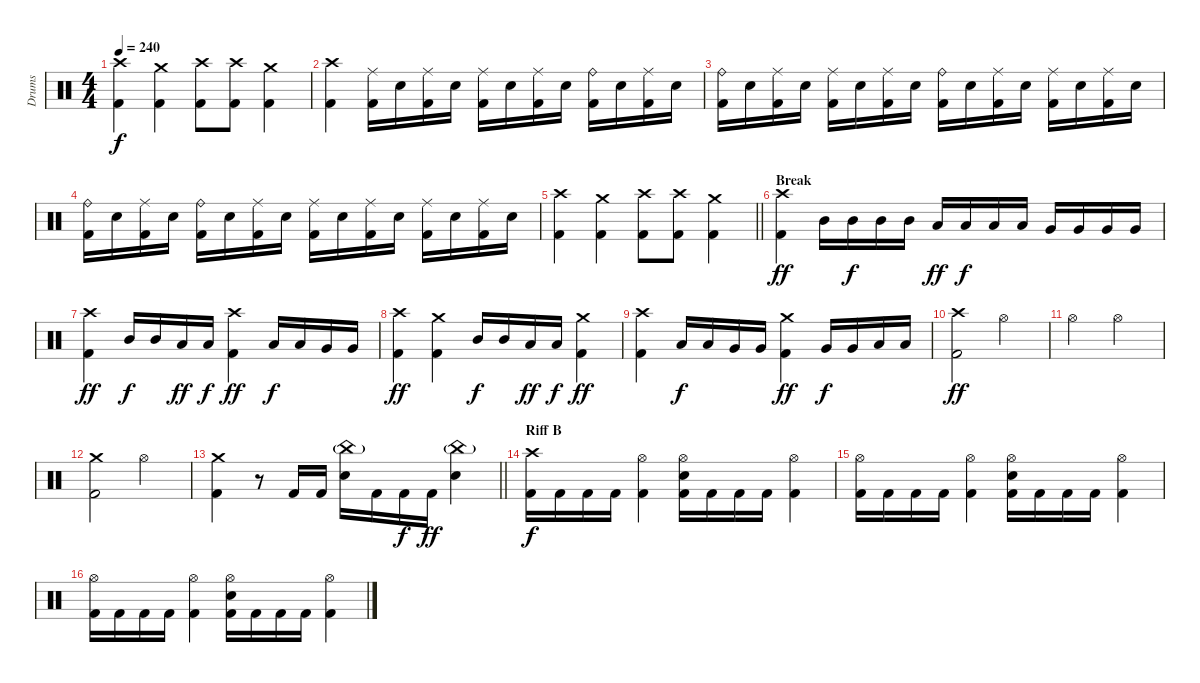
\track ("Drums" "Drums") {instrument percussion}
\staff {score}
\articulation defaults
\ts (4 4)
\tempo 240
\clef neutral
\ks c
("Crash high (hit)" "Kick (hit) 2").4{dy f} ("Crash medium (hit)" "Kick (hit) 2").4 ("Crash high (hit)" "Kick (hit) 2").8 ("Crash high (hit)" "Kick (hit) 2").8 ("Crash medium (hit)" "Kick (hit) 2").4 |
("Crash high (hit)" "Kick (hit) 2").4 ("Ride (middle)" "Kick (hit) 2").16 "Electric Snare (hit)".16 ("Ride (middle)" "Kick (hit) 2").16 "Electric Snare (hit)".16 ("Ride (middle)" "Kick (hit) 2").16 "Electric Snare (hit)".16 ("Ride (middle)" "Kick (hit) 2").16 "Electric Snare (hit)".16 ("Ride (bell)" "Kick (hit) 2").16 "Electric Snare (hit)".16 ("Ride (middle)" "Kick (hit) 2").16 "Electric Snare (hit)".16 |
("Ride (bell)" "Kick (hit) 2").16 "Electric Snare (hit)".16 ("Ride (middle)" "Kick (hit) 2").16 "Electric Snare (hit)".16 ("Ride (middle)" "Kick (hit) 2").16 "Electric Snare (hit)".16 ("Ride (middle)" "Kick (hit) 2").16 "Electric Snare (hit)".16 ("Ride (bell)" "Kick (hit) 2").16 "Electric Snare (hit)".16 ("Ride (middle)" "Kick (hit) 2").16 "Electric Snare (hit)".16 ("Ride (middle)" "Kick (hit) 2").16 "Electric Snare (hit)".16 ("Ride (middle)" "Kick (hit) 2").16 "Electric Snare (hit)".16 |
("Ride (bell)" "Kick (hit) 2").16 "Electric Snare (hit)".16 ("Ride (middle)" "Kick (hit) 2").16 "Electric Snare (hit)".16 ("Ride (bell)" "Kick (hit) 2").16 "Electric Snare (hit)".16 ("Ride (middle)" "Kick (hit) 2").16 "Electric Snare (hit)".16 ("Ride (middle)" "Kick (hit) 2").16 "Electric Snare (hit)".16 ("Ride (middle)" "Kick (hit) 2").16 "Electric Snare (hit)".16 ("Ride (middle)" "Kick (hit) 2").16 "Electric Snare (hit)".16 ("Ride (middle)" "Kick (hit) 2").16 "Electric Snare (hit)".16 |
\barLineRight lightlight
("Crash high (hit)" "Kick (hit) 2").4 ("Crash medium (hit)" "Kick (hit) 2").4 ("Crash high (hit)" "Kick (hit) 2").8 ("Crash high (hit)" "Kick (hit) 2").8 ("Crash medium (hit)" "Kick (hit) 2").4 |
\section ("" "Break")
("Crash high (hit)" "Kick (hit) 2").4{dy ff} "Mid Tom (hit)".16 "Mid Tom (hit)".16{dy f} "Mid Tom (hit)".16 "Mid Tom (hit)".16 "Low Tom (hit)".16{dy ff} "Low Tom (hit)".16{dy f} "Low Tom (hit)".16 "Low Tom (hit)".16 "Very Low Tom (hit)".16 "Very Low Tom (hit)".16 "Very Low Tom (hit)".16 "Very Low Tom (hit)".16 |
("Crash high (hit)" "Kick (hit) 2").4{dy ff} "Mid Tom (hit)".16{dy f} "Mid Tom (hit)".16 "Low Tom (hit)".16{dy ff} "Low Tom (hit)".16{dy f} ("Crash high (hit)" "Kick (hit) 2").4{dy ff} "Low Tom (hit)".16{dy f} "Low Tom (hit)".16 "Very Low Tom (hit)".16 "Very Low Tom (hit)".16 |
("Crash high (hit)" "Kick (hit) 2").4{dy ff} ("Crash medium (hit)" "Kick (hit) 2").4 "Mid Tom (hit)".16{dy f} "Mid Tom (hit)".16 "Low Tom (hit)".16{dy ff} "Low Tom (hit)".16{dy f} ("Crash medium (hit)" "Kick (hit) 2").4{dy ff} |
("Crash high (hit)" "Kick (hit) 2").4 "Low Tom (hit)".16{dy f} "Low Tom (hit)".16 "Very Low Tom (hit)".16 "Very Low Tom (hit)".16 ("Crash medium (hit)" "Kick (hit) 2").4{dy ff} "Very Low Tom (hit)".16{dy f} "Very Low Tom (hit)".16 "Low Floor Tom (hit)".16 "Low Floor Tom (hit)".16 |
("Crash high (hit)" "Kick (hit) 2").2{dy ff} "Hi-Hat (open)".2 |
"Hi-Hat (open)".2 "Hi-Hat (open)".2 |
("Crash medium (hit)" "Kick (hit) 2").2 "Hi-Hat (open)".2 |
\barLineRight lightlight
("Crash medium (hit)" "Kick (hit) 2").4 r.8 "Kick (hit) 2".16 "Kick (hit) 2".16 ("China (hit)"{g} "Electric Snare (hit)").16 "Kick (hit) 2".16 "Kick (hit) 2".16{dy f} "Kick (hit) 2".16{dy ff} ("China (hit)"{g} "Electric Snare (hit)").4 |
\section ("" "Riff B")
("Crash high (hit)" "Kick (hit) 2").16{dy f} "Kick (hit) 2".16 "Kick (hit) 2".16 "Kick (hit) 2".16 ("Hi-Hat (open)" "Kick (hit) 2").4 ("Hi-Hat (open)" "Electric Snare (hit)" "Kick (hit) 2").16 "Kick (hit) 2".16 "Kick (hit) 2".16 "Kick (hit) 2".16 ("Hi-Hat (open)" "Kick (hit) 2").4 |
("Hi-Hat (open)" "Kick (hit) 2").16 "Kick (hit) 2".16 "Kick (hit) 2".16 "Kick (hit) 2".16 ("Hi-Hat (open)" "Kick (hit) 2").4 ("Hi-Hat (open)" "Electric Snare (hit)" "Kick (hit) 2").16 "Kick (hit) 2".16 "Kick (hit) 2".16 "Kick (hit) 2".16 ("Hi-Hat (open)" "Kick (hit) 2").4 |
("Hi-Hat (open)" "Kick (hit) 2").16 "Kick (hit) 2".16 "Kick (hit) 2".16 "Kick (hit) 2".16 ("Hi-Hat (open)" "Kick (hit) 2").4 ("Hi-Hat (open)" "Electric Snare (hit)" "Kick (hit) 2").16 "Kick (hit) 2".16 "Kick (hit) 2".16 "Kick (hit) 2".16 ("Hi-Hat (open)" "Kick (hit) 2").4
